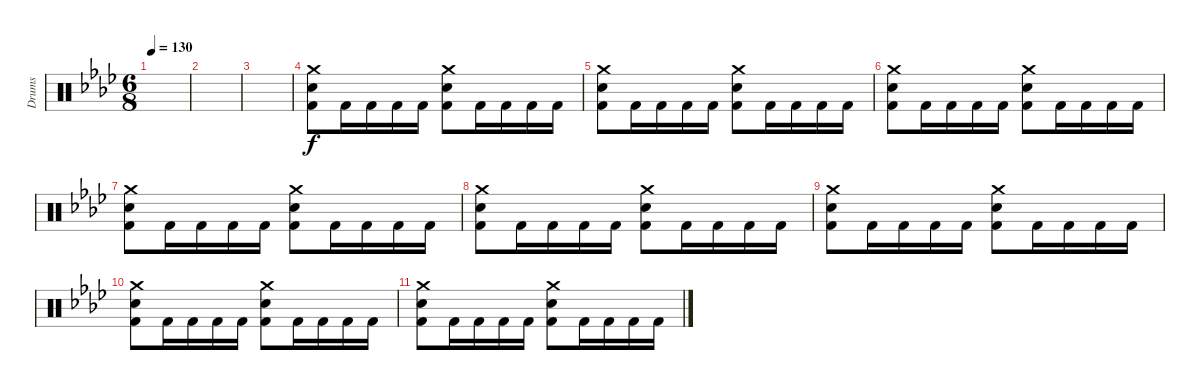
\track ("Drums" "Drums") {instrument percussion}
\staff {score}
\articulation defaults
\ts (6 8)
\tempo 130
\clef neutral
\ks ab
|
|
|
("Kick (hit) 2" "Electric Snare (hit)" "Crash medium (hit)").8 "Kick (hit) 2".16 "Kick (hit) 2".16 "Kick (hit) 2".16 "Kick (hit) 2".16 ("Kick (hit) 2" "Electric Snare (hit)" "Crash medium (hit)").8 "Kick (hit) 2".16 "Kick (hit) 2".16 "Kick (hit) 2".16 "Kick (hit) 2".16 |
("Kick (hit) 2" "Electric Snare (hit)" "Crash medium (hit)").8 "Kick (hit) 2".16 "Kick (hit) 2".16 "Kick (hit) 2".16 "Kick (hit) 2".16 ("Kick (hit) 2" "Electric Snare (hit)" "Crash medium (hit)").8 "Kick (hit) 2".16 "Kick (hit) 2".16 "Kick (hit) 2".16 "Kick (hit) 2".16 |
("Kick (hit) 2" "Electric Snare (hit)" "Crash medium (hit)").8 "Kick (hit) 2".16 "Kick (hit) 2".16 "Kick (hit) 2".16 "Kick (hit) 2".16 ("Kick (hit) 2" "Electric Snare (hit)" "Crash medium (hit)").8 "Kick (hit) 2".16 "Kick (hit) 2".16 "Kick (hit) 2".16 "Kick (hit) 2".16 |
("Kick (hit) 2" "Electric Snare (hit)" "Crash medium (hit)").8 "Kick (hit) 2".16 "Kick (hit) 2".16 "Kick (hit) 2".16 "Kick (hit) 2".16 ("Kick (hit) 2" "Electric Snare (hit)" "Crash medium (hit)").8 "Kick (hit) 2".16 "Kick (hit) 2".16 "Kick (hit) 2".16 "Kick (hit) 2".16 |
("Kick (hit) 2" "Electric Snare (hit)" "Crash medium (hit)").8 "Kick (hit) 2".16 "Kick (hit) 2".16 "Kick (hit) 2".16 "Kick (hit) 2".16 ("Kick (hit) 2" "Electric Snare (hit)" "Crash medium (hit)").8 "Kick (hit) 2".16 "Kick (hit) 2".16 "Kick (hit) 2".16 "Kick (hit) 2".16 |
("Kick (hit) 2" "Electric Snare (hit)" "Crash medium (hit)").8 "Kick (hit) 2".16 "Kick (hit) 2".16 "Kick (hit) 2".16 "Kick (hit) 2".16 ("Kick (hit) 2" "Electric Snare (hit)" "Crash medium (hit)").8 "Kick (hit) 2".16 "Kick (hit) 2".16 "Kick (hit) 2".16 "Kick (hit) 2".16 |
("Kick (hit) 2" "Electric Snare (hit)" "Crash medium (hit)").8 "Kick (hit) 2".16 "Kick (hit) 2".16 "Kick (hit) 2".16 "Kick (hit) 2".16 ("Kick (hit) 2" "Electric Snare (hit)" "Crash medium (hit)").8 "Kick (hit) 2".16 "Kick (hit) 2".16 "Kick (hit) 2".16 "Kick (hit) 2".16 |
("Kick (hit) 2" "Electric Snare (hit)" "Crash medium (hit)").8 "Kick (hit) 2".16 "Kick (hit) 2".16 "Kick (hit) 2".16 "Kick (hit) 2".16 ("Kick (hit) 2" "Electric Snare (hit)" "Crash medium (hit)").8 "Kick (hit) 2".16 "Kick (hit) 2".16 "Kick (hit) 2".16 "Kick (hit) 2".16
